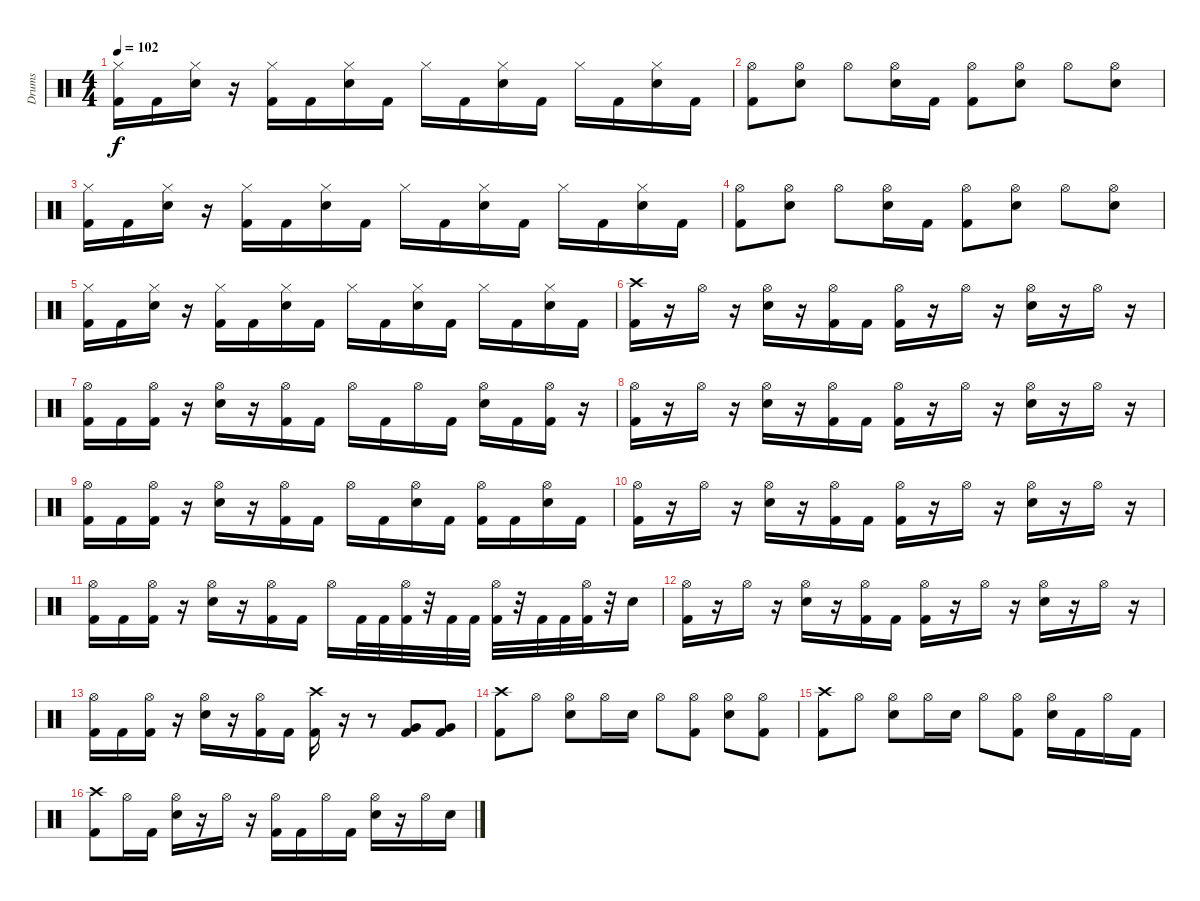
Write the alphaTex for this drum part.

\track ("Drums" "Drums") {instrument percussion}
\staff {score}
\articulation defaults
\ts (4 4)
\tempo 102
\clef neutral
\ks c
("Kick (hit) 2" "Hi-Hat (closed)").16{dy f} "Kick (hit) 2".16 ("Electric Snare (hit)" "Hi-Hat (closed)").16 r.16 ("Kick (hit) 2" "Hi-Hat (closed)").16 "Kick (hit) 2".16 ("Electric Snare (hit)" "Hi-Hat (closed)").16 "Kick (hit) 2".16 "Hi-Hat (closed)".16 "Kick (hit) 2".16 ("Electric Snare (hit)" "Hi-Hat (closed)").16 "Kick (hit) 2".16 "Hi-Hat (closed)".16 "Kick (hit) 2".16 ("Electric Snare (hit)" "Hi-Hat (closed)").16 "Kick (hit) 2".16 |
("Kick (hit) 2" "Hi-Hat (open)").8 ("Electric Snare (hit)" "Hi-Hat (open)").8 "Hi-Hat (open)".8 ("Electric Snare (hit)" "Hi-Hat (open)").16 "Kick (hit) 2".16 ("Kick (hit) 2" "Hi-Hat (open)").8 ("Electric Snare (hit)" "Hi-Hat (open)").8 "Hi-Hat (open)".8 ("Electric Snare (hit)" "Hi-Hat (open)").8 |
("Kick (hit) 2" "Hi-Hat (closed)").16 "Kick (hit) 2".16 ("Electric Snare (hit)" "Hi-Hat (closed)").16 r.16 ("Kick (hit) 2" "Hi-Hat (closed)").16 "Kick (hit) 2".16 ("Electric Snare (hit)" "Hi-Hat (closed)").16 "Kick (hit) 2".16 "Hi-Hat (closed)".16 "Kick (hit) 2".16 ("Electric Snare (hit)" "Hi-Hat (closed)").16 "Kick (hit) 2".16 "Hi-Hat (closed)".16 "Kick (hit) 2".16 ("Electric Snare (hit)" "Hi-Hat (closed)").16 "Kick (hit) 2".16 |
("Kick (hit) 2" "Hi-Hat (open)").8 ("Electric Snare (hit)" "Hi-Hat (open)").8 "Hi-Hat (open)".8 ("Electric Snare (hit)" "Hi-Hat (open)").16 "Kick (hit) 2".16 ("Kick (hit) 2" "Hi-Hat (open)").8 ("Electric Snare (hit)" "Hi-Hat (open)").8 "Hi-Hat (open)".8 ("Electric Snare (hit)" "Hi-Hat (open)").8 |
("Kick (hit) 2" "Hi-Hat (closed)").16 "Kick (hit) 2".16 ("Electric Snare (hit)" "Hi-Hat (closed)").16 r.16 ("Kick (hit) 2" "Hi-Hat (closed)").16 "Kick (hit) 2".16 ("Electric Snare (hit)" "Hi-Hat (closed)").16 "Kick (hit) 2".16 "Hi-Hat (closed)".16 "Kick (hit) 2".16 ("Electric Snare (hit)" "Hi-Hat (closed)").16 "Kick (hit) 2".16 "Hi-Hat (closed)".16 "Kick (hit) 2".16 ("Electric Snare (hit)" "Hi-Hat (closed)").16 "Kick (hit) 2".16 |
("Kick (hit) 2" "Crash high (hit)").16 r.16 "Hi-Hat (open)".16 r.16 ("Electric Snare (hit)" "Hi-Hat (open)").16 r.16 ("Kick (hit) 2" "Hi-Hat (open)").16 "Kick (hit) 2".16 ("Kick (hit) 2" "Hi-Hat (open)").16 r.16 "Hi-Hat (open)".16 r.16 ("Electric Snare (hit)" "Hi-Hat (open)").16 r.16 "Hi-Hat (open)".16 r.16 |
("Kick (hit) 2" "Hi-Hat (open)").16 "Kick (hit) 2".16 ("Kick (hit) 2" "Hi-Hat (open)").16 r.16 ("Electric Snare (hit)" "Hi-Hat (open)").16 r.16 ("Kick (hit) 2" "Hi-Hat (open)").16 "Kick (hit) 2".16 "Hi-Hat (open)".16 "Kick (hit) 2".16 "Hi-Hat (open)".16 "Kick (hit) 2".16 ("Electric Snare (hit)" "Hi-Hat (open)").16 "Kick (hit) 2".16 ("Kick (hit) 2" "Hi-Hat (open)").16 r.16 |
("Kick (hit) 2" "Hi-Hat (open)").16 r.16 "Hi-Hat (open)".16 r.16 ("Electric Snare (hit)" "Hi-Hat (open)").16 r.16 ("Kick (hit) 2" "Hi-Hat (open)").16 "Kick (hit) 2".16 ("Kick (hit) 2" "Hi-Hat (open)").16 r.16 "Hi-Hat (open)".16 r.16 ("Electric Snare (hit)" "Hi-Hat (open)").16 r.16 "Hi-Hat (open)".16 r.16 |
("Kick (hit) 2" "Hi-Hat (open)").16 "Kick (hit) 2".16 ("Kick (hit) 2" "Hi-Hat (open)").16 r.16 ("Electric Snare (hit)" "Hi-Hat (open)").16 r.16 ("Kick (hit) 2" "Hi-Hat (open)").16 "Kick (hit) 2".16 "Hi-Hat (open)".16 "Kick (hit) 2".16 ("Electric Snare (hit)" "Hi-Hat (open)").16 "Kick (hit) 2".16 ("Kick (hit) 2" "Hi-Hat (open)").16 "Kick (hit) 2".16 ("Electric Snare (hit)" "Hi-Hat (open)").16 "Kick (hit) 2".16 |
("Kick (hit) 2" "Hi-Hat (open)").16 r.16 "Hi-Hat (open)".16 r.16 ("Electric Snare (hit)" "Hi-Hat (open)").16 r.16 ("Kick (hit) 2" "Hi-Hat (open)").16 "Kick (hit) 2".16 ("Kick (hit) 2" "Hi-Hat (open)").16 r.16 "Hi-Hat (open)".16 r.16 ("Electric Snare (hit)" "Hi-Hat (open)").16 r.16 "Hi-Hat (open)".16 r.16 |
("Kick (hit) 2" "Hi-Hat (open)").16 "Kick (hit) 2".16 ("Kick (hit) 2" "Hi-Hat (open)").16 r.16 ("Electric Snare (hit)" "Hi-Hat (open)").16 r.16 ("Kick (hit) 2" "Hi-Hat (open)").16 "Kick (hit) 2".16 "Hi-Hat (open)".16 "Kick (hit) 2".32 "Kick (hit) 2".32 ("Kick (hit) 2" "Hi-Hat (open)").32 r.32 "Kick (hit) 2".32 "Kick (hit) 2".32 ("Kick (hit) 2" "Hi-Hat (open)").32 r.32 "Kick (hit) 2".32 "Kick (hit) 2".32 ("Kick (hit) 2" "Hi-Hat (open)").32 r.32 "Electric Snare (hit)".16 |
("Kick (hit) 2" "Hi-Hat (open)").16 r.16 "Hi-Hat (open)".16 r.16 ("Electric Snare (hit)" "Hi-Hat (open)").16 r.16 ("Kick (hit) 2" "Hi-Hat (open)").16 "Kick (hit) 2".16 ("Kick (hit) 2" "Hi-Hat (open)").16 r.16 "Hi-Hat (open)".16 r.16 ("Electric Snare (hit)" "Hi-Hat (open)").16 r.16 "Hi-Hat (open)".16 r.16 |
("Kick (hit) 2" "Hi-Hat (open)").16 "Kick (hit) 2".16 ("Kick (hit) 2" "Hi-Hat (open)").16 r.16 ("Electric Snare (hit)" "Hi-Hat (open)").16 r.16 ("Kick (hit) 2" "Hi-Hat (open)").16 "Kick (hit) 2".16 ("Kick (hit) 2" "Crash high (hit)").16 r.16 r.8 ("Kick (hit) 2" "Very Low Tom (hit)").8 ("Kick (hit) 2" "Very Low Tom (hit)").8 |
("Kick (hit) 2" "Crash high (hit)").8 "Hi-Hat (open)".8 ("Electric Snare (hit)" "Hi-Hat (open)").8 "Hi-Hat (open)".16 "Electric Snare (hit)".16 "Hi-Hat (open)".8 ("Kick (hit) 2" "Hi-Hat (open)").8 ("Electric Snare (hit)" "Hi-Hat (open)").8 ("Kick (hit) 2" "Hi-Hat (open)").8 |
("Kick (hit) 2" "Crash high (hit)").8 "Hi-Hat (open)".8 ("Electric Snare (hit)" "Hi-Hat (open)").8 "Hi-Hat (open)".16 "Electric Snare (hit)".16 "Hi-Hat (open)".8 ("Kick (hit) 2" "Hi-Hat (open)").8 ("Electric Snare (hit)" "Hi-Hat (open)").16 "Kick (hit) 2".16 "Hi-Hat (open)".16 "Kick (hit) 2".16 |
("Kick (hit) 2" "Crash high (hit)").8 "Hi-Hat (open)".16 "Kick (hit) 2".16 ("Electric Snare (hit)" "Hi-Hat (open)").16 r.16 "Hi-Hat (open)".16 r.16 ("Kick (hit) 2" "Hi-Hat (open)").16 "Kick (hit) 2".16 "Hi-Hat (open)".16 "Kick (hit) 2".16 ("Electric Snare (hit)" "Hi-Hat (open)").16 r.16 "Hi-Hat (open)".16 "Electric Snare (hit)".16
